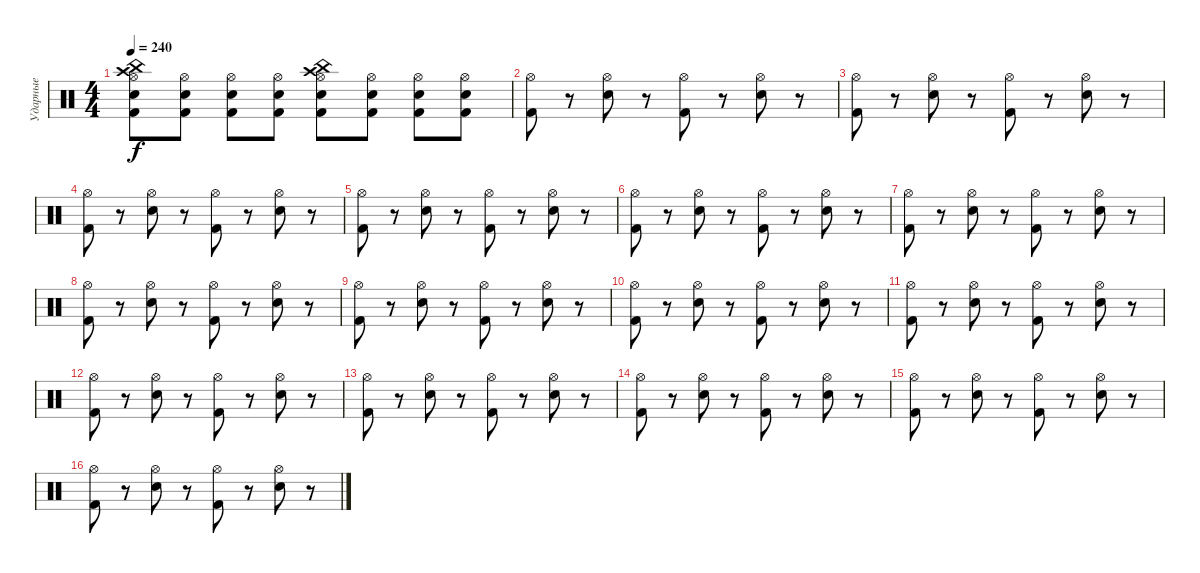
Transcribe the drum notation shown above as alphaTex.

\track ("Ударные" "Ударные") {instrument percussion}
\staff {score}
\articulation defaults
\ts (4 4)
\tempo 240
\clef neutral
\ks c
("Electric Snare (hit)" "Kick (hit) 2" "Hi-Hat (open)" "Crash high (hit)" "China (hit)").8{dy f} ("Hi-Hat (open)" "Kick (hit) 2" "Electric Snare (hit)").8 ("Electric Snare (hit)" "Kick (hit) 2" "Hi-Hat (open)").8 ("Hi-Hat (open)" "Kick (hit) 2" "Electric Snare (hit)").8 ("Electric Snare (hit)" "Kick (hit) 2" "Hi-Hat (open)" "China (hit)" "Crash high (hit)").8 ("Hi-Hat (open)" "Kick (hit) 2" "Electric Snare (hit)").8 ("Electric Snare (hit)" "Kick (hit) 2" "Hi-Hat (open)").8 ("Hi-Hat (open)" "Kick (hit) 2" "Electric Snare (hit)").8 |
("Kick (hit) 2" "Hi-Hat (open)").8 r.8 ("Electric Snare (hit)" "Hi-Hat (open)").8 r.8 ("Kick (hit) 2" "Hi-Hat (open)").8 r.8 ("Electric Snare (hit)" "Hi-Hat (open)").8 r.8 |
("Kick (hit) 2" "Hi-Hat (open)").8 r.8 ("Electric Snare (hit)" "Hi-Hat (open)").8 r.8 ("Kick (hit) 2" "Hi-Hat (open)").8 r.8 ("Electric Snare (hit)" "Hi-Hat (open)").8 r.8 |
("Kick (hit) 2" "Hi-Hat (open)").8 r.8 ("Electric Snare (hit)" "Hi-Hat (open)").8 r.8 ("Kick (hit) 2" "Hi-Hat (open)").8 r.8 ("Electric Snare (hit)" "Hi-Hat (open)").8 r.8 |
("Kick (hit) 2" "Hi-Hat (open)").8 r.8 ("Electric Snare (hit)" "Hi-Hat (open)").8 r.8 ("Kick (hit) 2" "Hi-Hat (open)").8 r.8 ("Electric Snare (hit)" "Hi-Hat (open)").8 r.8 |
("Kick (hit) 2" "Hi-Hat (open)").8 r.8 ("Electric Snare (hit)" "Hi-Hat (open)").8 r.8 ("Kick (hit) 2" "Hi-Hat (open)").8 r.8 ("Electric Snare (hit)" "Hi-Hat (open)").8 r.8 |
("Kick (hit) 2" "Hi-Hat (open)").8 r.8 ("Electric Snare (hit)" "Hi-Hat (open)").8 r.8 ("Kick (hit) 2" "Hi-Hat (open)").8 r.8 ("Electric Snare (hit)" "Hi-Hat (open)").8 r.8 |
("Kick (hit) 2" "Hi-Hat (open)").8 r.8 ("Electric Snare (hit)" "Hi-Hat (open)").8 r.8 ("Kick (hit) 2" "Hi-Hat (open)").8 r.8 ("Electric Snare (hit)" "Hi-Hat (open)").8 r.8 |
("Kick (hit) 2" "Hi-Hat (open)").8 r.8 ("Electric Snare (hit)" "Hi-Hat (open)").8 r.8 ("Kick (hit) 2" "Hi-Hat (open)").8 r.8 ("Electric Snare (hit)" "Hi-Hat (open)").8 r.8 |
("Kick (hit) 2" "Hi-Hat (open)").8 r.8 ("Electric Snare (hit)" "Hi-Hat (open)").8 r.8 ("Kick (hit) 2" "Hi-Hat (open)").8 r.8 ("Electric Snare (hit)" "Hi-Hat (open)").8 r.8 |
("Kick (hit) 2" "Hi-Hat (open)").8 r.8 ("Electric Snare (hit)" "Hi-Hat (open)").8 r.8 ("Kick (hit) 2" "Hi-Hat (open)").8 r.8 ("Electric Snare (hit)" "Hi-Hat (open)").8 r.8 |
("Kick (hit) 2" "Hi-Hat (open)").8 r.8 ("Electric Snare (hit)" "Hi-Hat (open)").8 r.8 ("Kick (hit) 2" "Hi-Hat (open)").8 r.8 ("Electric Snare (hit)" "Hi-Hat (open)").8 r.8 |
("Kick (hit) 2" "Hi-Hat (open)").8 r.8 ("Electric Snare (hit)" "Hi-Hat (open)").8 r.8 ("Kick (hit) 2" "Hi-Hat (open)").8 r.8 ("Electric Snare (hit)" "Hi-Hat (open)").8 r.8 |
("Kick (hit) 2" "Hi-Hat (open)").8 r.8 ("Electric Snare (hit)" "Hi-Hat (open)").8 r.8 ("Kick (hit) 2" "Hi-Hat (open)").8 r.8 ("Electric Snare (hit)" "Hi-Hat (open)").8 r.8 |
("Kick (hit) 2" "Hi-Hat (open)").8 r.8 ("Electric Snare (hit)" "Hi-Hat (open)").8 r.8 ("Kick (hit) 2" "Hi-Hat (open)").8 r.8 ("Electric Snare (hit)" "Hi-Hat (open)").8 r.8 |
("Kick (hit) 2" "Hi-Hat (open)").8 r.8 ("Electric Snare (hit)" "Hi-Hat (open)").8 r.8 ("Kick (hit) 2" "Hi-Hat (open)").8 r.8 ("Electric Snare (hit)" "Hi-Hat (open)").8 r.8
